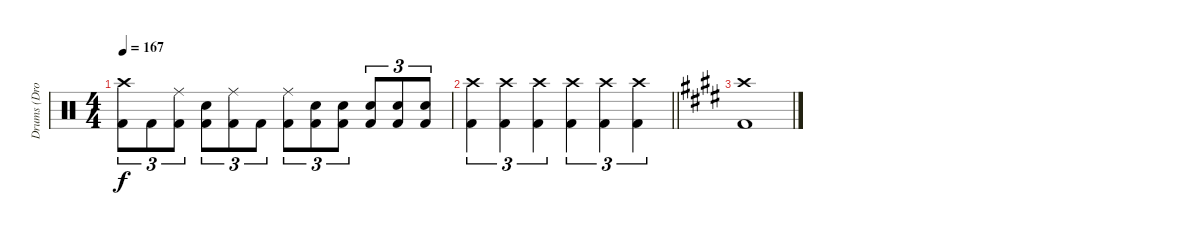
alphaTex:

\track ("Drums (Drover)" "Drums (Dro") {instrument percussion}
\staff {score}
\articulation defaults
\ts (4 4)
\tempo 167
\clef neutral
\ks c
("Crash high (hit)" "Kick (hit) 2").8{tu (3 2) dy f} "Kick (hit) 2".8{tu (3 2)} ("Ride (middle)" "Kick (hit) 2").8{tu (3 2)} ("Electric Snare (hit)" "Kick (hit) 2").8{tu (3 2)} ("Ride (middle)" "Kick (hit) 2").8{tu (3 2)} "Kick (hit) 2".8{tu (3 2)} ("Ride (middle)" "Kick (hit) 2").8{tu (3 2)} ("Electric Snare (hit)" "Kick (hit) 2").8{tu (3 2)} ("Electric Snare (hit)" "Kick (hit) 2").8{tu (3 2)} ("Electric Snare (hit)" "Kick (hit) 2").8{tu (3 2)} ("Electric Snare (hit)" "Kick (hit) 2").8{tu (3 2)} ("Electric Snare (hit)" "Kick (hit) 2").8{tu (3 2)} |
\barLineRight lightlight
("Crash high (hit)" "Kick (hit) 2").4{tu (3 2)} ("Crash high (hit)" "Kick (hit) 2").4{tu (3 2)} ("Crash high (hit)" "Kick (hit) 2").4{tu (3 2)} ("Crash high (hit)" "Kick (hit) 2").4{tu (3 2)} ("Crash high (hit)" "Kick (hit) 2").4{tu (3 2)} ("Crash high (hit)" "Kick (hit) 2").4{tu (3 2)} |
\ks e
("Kick (hit) 2" "Crash high (hit)").1
